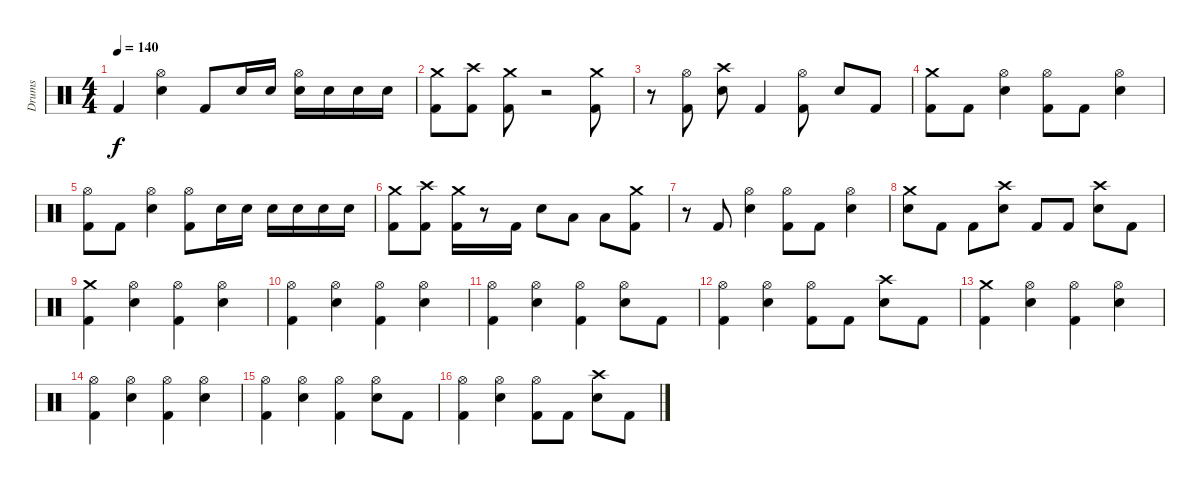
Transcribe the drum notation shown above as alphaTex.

\track ("Drums" "Drums") {instrument percussion}
\staff {score}
\articulation defaults
\ts (4 4)
\tempo 140
\clef neutral
\ks c "Kick (hit) 2".4{dy f}
("Hi-Hat (open)" "Electric Snare (hit)").4 "Kick (hit) 2".8 "Electric Snare (hit)".16 "Electric Snare (hit)".16 ("Hi-Hat (open)" "Electric Snare (hit)").16 "Electric Snare (hit)".16 "Electric Snare (hit)".16 "Electric Snare (hit)".16 |
("Crash medium (hit)" "Kick (hit) 2").8 ("Crash high (hit)" "Kick (hit) 2").8 ("Crash medium (hit)" "Kick (hit) 2").8 r.2 ("Crash medium (hit)" "Kick (hit) 2").8 |
r.8 ("Hi-Hat (open)" "Kick (hit) 2").8 ("Crash high (hit)" "Electric Snare (hit)").8 "Kick (hit) 2".4 ("Hi-Hat (open)" "Kick (hit) 2").8 "Electric Snare (hit)".8 "Kick (hit) 2".8 |
("Crash medium (hit)" "Kick (hit) 2").8 "Kick (hit) 2".8 ("Hi-Hat (open)" "Electric Snare (hit)").4 ("Hi-Hat (open)" "Kick (hit) 2").8 "Kick (hit) 2".8 ("Hi-Hat (open)" "Electric Snare (hit)").4 |
("Hi-Hat (open)" "Kick (hit) 2").8 "Kick (hit) 2".8 ("Hi-Hat (open)" "Electric Snare (hit)").4 ("Hi-Hat (open)" "Kick (hit) 2").8 "Electric Snare (hit)".16 "Electric Snare (hit)".16 "Electric Snare (hit)".16 "Electric Snare (hit)".16 "Electric Snare (hit)".16 "Electric Snare (hit)".16 |
("Crash medium (hit)" "Kick (hit) 2").8 ("Crash high (hit)" "Kick (hit) 2").8 ("Crash medium (hit)" "Kick (hit) 2").16 r.8 "Kick (hit) 2".16 "Electric Snare (hit)".8 "Low Tom (hit)".8 "Low Floor Tom (hit)".8 ("Crash medium (hit)" "Kick (hit) 2").8 |
r.8 "Kick (hit) 2".8 ("Hi-Hat (open)" "Electric Snare (hit)").4 ("Hi-Hat (open)" "Kick (hit) 2").8 "Kick (hit) 2".8 ("Hi-Hat (open)" "Electric Snare (hit)").4 |
("Crash medium (hit)" "Electric Snare (hit)").8 "Kick (hit) 2".8 "Kick (hit) 2".8 ("Crash high (hit)" "Electric Snare (hit)").8 "Kick (hit) 2".8 "Kick (hit) 2".8 ("Crash high (hit)" "Electric Snare (hit)").8 "Kick (hit) 2".8 |
("Crash medium (hit)" "Kick (hit) 2").4 ("Hi-Hat (open)" "Electric Snare (hit)").4 ("Hi-Hat (open)" "Kick (hit) 2").4 ("Hi-Hat (open)" "Electric Snare (hit)").4 |
("Hi-Hat (open)" "Kick (hit) 2").4 ("Hi-Hat (open)" "Electric Snare (hit)").4 ("Hi-Hat (open)" "Kick (hit) 2").4 ("Hi-Hat (open)" "Electric Snare (hit)").4 |
("Hi-Hat (open)" "Kick (hit) 2").4 ("Hi-Hat (open)" "Electric Snare (hit)").4 ("Hi-Hat (open)" "Kick (hit) 2").4 ("Hi-Hat (open)" "Electric Snare (hit)").8 "Kick (hit) 2".8 |
("Hi-Hat (open)" "Kick (hit) 2").4 ("Hi-Hat (open)" "Electric Snare (hit)").4 ("Hi-Hat (open)" "Kick (hit) 2").8 "Kick (hit) 2".8 ("Crash high (hit)" "Electric Snare (hit)").8 "Kick (hit) 2".8 |
("Crash medium (hit)" "Kick (hit) 2").4 ("Hi-Hat (open)" "Electric Snare (hit)").4 ("Hi-Hat (open)" "Kick (hit) 2").4 ("Hi-Hat (open)" "Electric Snare (hit)").4 |
("Hi-Hat (open)" "Kick (hit) 2").4 ("Hi-Hat (open)" "Electric Snare (hit)").4 ("Hi-Hat (open)" "Kick (hit) 2").4 ("Hi-Hat (open)" "Electric Snare (hit)").4 |
("Hi-Hat (open)" "Kick (hit) 2").4 ("Hi-Hat (open)" "Electric Snare (hit)").4 ("Hi-Hat (open)" "Kick (hit) 2").4 ("Hi-Hat (open)" "Electric Snare (hit)").8 "Kick (hit) 2".8 |
("Hi-Hat (open)" "Kick (hit) 2").4 ("Hi-Hat (open)" "Electric Snare (hit)").4 ("Hi-Hat (open)" "Kick (hit) 2").8 "Kick (hit) 2".8 ("Crash high (hit)" "Electric Snare (hit)").8 "Kick (hit) 2".8
